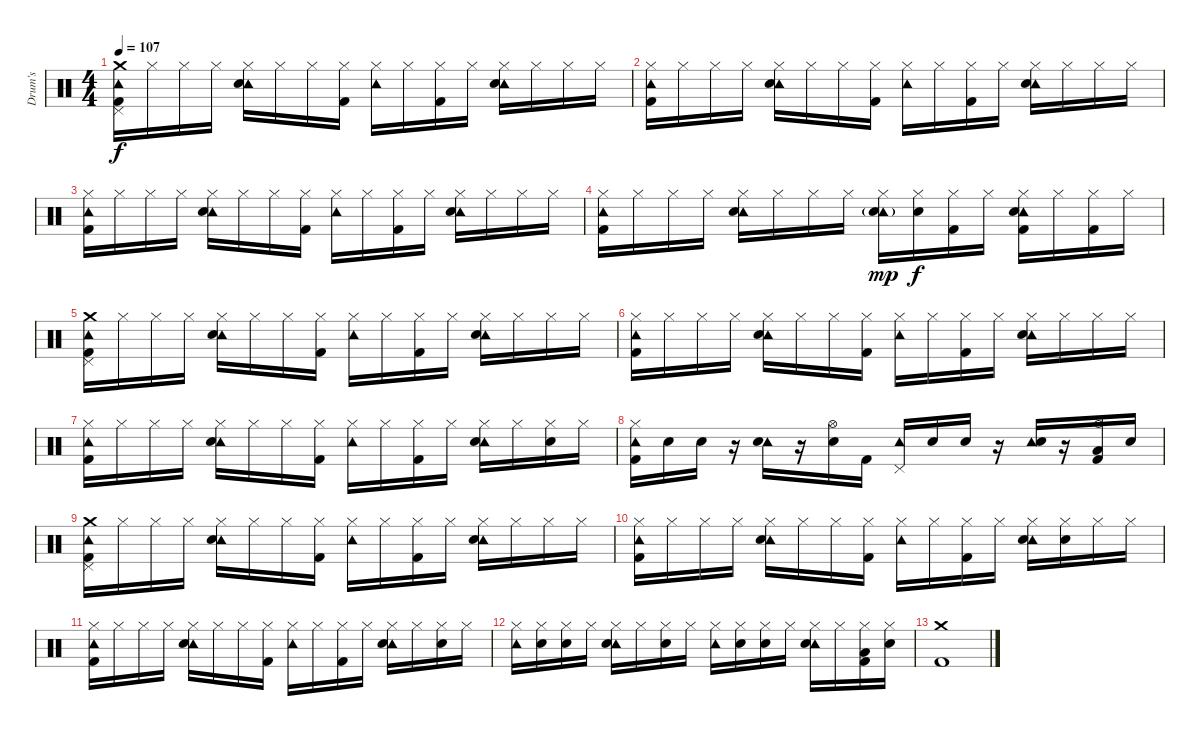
\track ("Drum's" "Drum's") {instrument percussion}
\staff {score}
\articulation defaults
\ts (4 4)
\tempo 107
\clef neutral
\ks c
("Crash medium (hit)" "Pedal Hi-Hat (hit)" "Tambourine (hit)" "Kick (hit) 2").16{dy f} "Hi-Hat (closed)".16 "Hi-Hat (closed)".16 "Hi-Hat (closed)".16 ("Hi-Hat (closed)" "Tambourine (hit)" "Snare (hit) 2").16 "Hi-Hat (closed)".16 "Hi-Hat (closed)".16 ("Hi-Hat (closed)" "Kick (hit) 2").16 ("Hi-Hat (closed)" "Tambourine (hit)").16 "Hi-Hat (closed)".16 ("Hi-Hat (closed)" "Kick (hit) 2").16 "Hi-Hat (closed)".16 ("Hi-Hat (closed)" "Tambourine (hit)" "Snare (hit) 2").16 "Hi-Hat (closed)".16 "Hi-Hat (closed)".16 "Hi-Hat (closed)".16 |
("Hi-Hat (closed)" "Tambourine (hit)" "Kick (hit) 2").16 "Hi-Hat (closed)".16 "Hi-Hat (closed)".16 "Hi-Hat (closed)".16 ("Hi-Hat (closed)" "Tambourine (hit)" "Snare (hit) 2").16 "Hi-Hat (closed)".16 "Hi-Hat (closed)".16 ("Hi-Hat (closed)" "Kick (hit) 2").16 ("Hi-Hat (closed)" "Tambourine (hit)").16 "Hi-Hat (closed)".16 ("Hi-Hat (closed)" "Kick (hit) 2").16 "Hi-Hat (closed)".16 ("Hi-Hat (closed)" "Tambourine (hit)" "Snare (hit) 2").16 "Hi-Hat (closed)".16 "Hi-Hat (closed)".16 "Hi-Hat (closed)".16 |
("Hi-Hat (closed)" "Tambourine (hit)" "Kick (hit) 2").16 "Hi-Hat (closed)".16 "Hi-Hat (closed)".16 "Hi-Hat (closed)".16 ("Hi-Hat (closed)" "Tambourine (hit)" "Snare (hit) 2").16 "Hi-Hat (closed)".16 "Hi-Hat (closed)".16 ("Hi-Hat (closed)" "Kick (hit) 2").16 ("Hi-Hat (closed)" "Tambourine (hit)").16 "Hi-Hat (closed)".16 ("Hi-Hat (closed)" "Kick (hit) 2").16 "Hi-Hat (closed)".16 ("Hi-Hat (closed)" "Tambourine (hit)" "Snare (hit) 2").16 "Hi-Hat (closed)".16 "Hi-Hat (closed)".16 "Hi-Hat (closed)".16 |
("Hi-Hat (closed)" "Tambourine (hit)" "Kick (hit) 2").16 "Hi-Hat (closed)".16 "Hi-Hat (closed)".16 "Hi-Hat (closed)".16 ("Hi-Hat (closed)" "Tambourine (hit)" "Snare (hit) 2").16 "Hi-Hat (closed)".16 "Hi-Hat (closed)".16 "Hi-Hat (closed)".16 ("Hi-Hat (closed)" "Tambourine (hit)" "Snare (hit) 2"{g}).16{dy mp} ("Hi-Hat (closed)" "Snare (hit) 2").16{dy f} ("Hi-Hat (closed)" "Kick (hit) 2").16 "Hi-Hat (closed)".16 ("Hi-Hat (closed)" "Tambourine (hit)" "Snare (hit) 2" "Kick (hit) 2").16 "Hi-Hat (closed)".16 ("Hi-Hat (closed)" "Kick (hit) 2").16 "Hi-Hat (closed)".16 |
("Crash medium (hit)" "Pedal Hi-Hat (hit)" "Tambourine (hit)" "Kick (hit) 2").16{volume 8} "Hi-Hat (closed)".16 "Hi-Hat (closed)".16 "Hi-Hat (closed)".16 ("Hi-Hat (closed)" "Tambourine (hit)" "Snare (hit) 2").16 "Hi-Hat (closed)".16 "Hi-Hat (closed)".16 ("Hi-Hat (closed)" "Kick (hit) 2").16 ("Hi-Hat (closed)" "Tambourine (hit)").16 "Hi-Hat (closed)".16 ("Hi-Hat (closed)" "Kick (hit) 2").16 "Hi-Hat (closed)".16 ("Hi-Hat (closed)" "Tambourine (hit)" "Snare (hit) 2").16 "Hi-Hat (closed)".16 "Hi-Hat (closed)".16 "Hi-Hat (closed)".16 |
("Hi-Hat (closed)" "Tambourine (hit)" "Kick (hit) 2").16 "Hi-Hat (closed)".16 "Hi-Hat (closed)".16 "Hi-Hat (closed)".16 ("Hi-Hat (closed)" "Tambourine (hit)" "Snare (hit) 2").16 "Hi-Hat (closed)".16 "Hi-Hat (closed)".16 ("Hi-Hat (closed)" "Kick (hit) 2").16 ("Hi-Hat (closed)" "Tambourine (hit)").16 "Hi-Hat (closed)".16 ("Hi-Hat (closed)" "Kick (hit) 2").16 "Hi-Hat (closed)".16 ("Hi-Hat (closed)" "Tambourine (hit)" "Snare (hit) 2").16 "Hi-Hat (closed)".16 "Hi-Hat (closed)".16 "Hi-Hat (closed)".16 |
("Hi-Hat (closed)" "Tambourine (hit)" "Kick (hit) 2").16 "Hi-Hat (closed)".16 "Hi-Hat (closed)".16 "Hi-Hat (closed)".16 ("Hi-Hat (closed)" "Tambourine (hit)" "Snare (hit) 2").16 "Hi-Hat (closed)".16 "Hi-Hat (closed)".16 ("Hi-Hat (closed)" "Kick (hit) 2").16 ("Hi-Hat (closed)" "Tambourine (hit)").16 "Hi-Hat (closed)".16 ("Hi-Hat (closed)" "Kick (hit) 2").16 "Hi-Hat (closed)".16 ("Hi-Hat (closed)" "Tambourine (hit)" "Snare (hit) 2").16 "Hi-Hat (closed)".16 ("Hi-Hat (closed)" "Snare (hit) 2").16 "Hi-Hat (closed)".16 |
("Hi-Hat (closed)" "Tambourine (hit)" "Kick (hit) 2").16 "Snare (hit) 2".16 "Snare (hit) 2".16 r.16 ("Tambourine (hit)" "Snare (hit) 2").16 r.16 ("Hi-Hat (open)" "Snare (hit) 2").16 "Kick (hit) 2".16 ("Pedal Hi-Hat (hit)" "Tambourine (hit)").16 "Snare (hit) 2".16 "Snare (hit) 2".16 r.16 ("Tambourine (hit)" "Snare (hit) 2").16 r.16 ("Hi-Hat (open)" "Low Floor Tom (hit)" "Kick (hit) 2").16 "Snare (hit) 2".16 |
("Crash medium (hit)" "Pedal Hi-Hat (hit)" "Tambourine (hit)" "Kick (hit) 2").16{volume 2} "Hi-Hat (closed)".16 "Hi-Hat (closed)".16 "Hi-Hat (closed)".16 ("Hi-Hat (closed)" "Tambourine (hit)" "Snare (hit) 2").16 "Hi-Hat (closed)".16 "Hi-Hat (closed)".16 ("Hi-Hat (closed)" "Kick (hit) 2").16 ("Hi-Hat (closed)" "Tambourine (hit)").16 "Hi-Hat (closed)".16 ("Hi-Hat (closed)" "Kick (hit) 2").16 "Hi-Hat (closed)".16 ("Hi-Hat (closed)" "Tambourine (hit)" "Snare (hit) 2").16 "Hi-Hat (closed)".16 "Hi-Hat (closed)".16 "Hi-Hat (closed)".16 |
("Hi-Hat (closed)" "Tambourine (hit)" "Kick (hit) 2").16 "Hi-Hat (closed)".16 "Hi-Hat (closed)".16 "Hi-Hat (closed)".16 ("Hi-Hat (closed)" "Tambourine (hit)" "Snare (hit) 2").16 "Hi-Hat (closed)".16 "Hi-Hat (closed)".16 ("Hi-Hat (closed)" "Kick (hit) 2").16 ("Hi-Hat (closed)" "Tambourine (hit)").16 "Hi-Hat (closed)".16 ("Hi-Hat (closed)" "Kick (hit) 2").16 "Hi-Hat (closed)".16 ("Hi-Hat (closed)" "Tambourine (hit)" "Snare (hit) 2").16 ("Hi-Hat (closed)" "Snare (hit) 2").16 "Hi-Hat (closed)".16 "Hi-Hat (closed)".16 |
("Hi-Hat (closed)" "Tambourine (hit)" "Kick (hit) 2").16 "Hi-Hat (closed)".16 "Hi-Hat (closed)".16 "Hi-Hat (closed)".16 ("Hi-Hat (closed)" "Tambourine (hit)" "Snare (hit) 2").16 "Hi-Hat (closed)".16 "Hi-Hat (closed)".16 ("Hi-Hat (closed)" "Kick (hit) 2").16 ("Hi-Hat (closed)" "Tambourine (hit)").16 "Hi-Hat (closed)".16 ("Hi-Hat (closed)" "Kick (hit) 2").16 "Hi-Hat (closed)".16 ("Hi-Hat (closed)" "Tambourine (hit)" "Snare (hit) 2").16 "Hi-Hat (closed)".16 ("Hi-Hat (closed)" "Snare (hit) 2").16 "Hi-Hat (closed)".16 |
("Hi-Hat (closed)" "Tambourine (hit)").16 ("Hi-Hat (closed)" "Snare (hit) 2").16 ("Hi-Hat (closed)" "Snare (hit) 2").16 "Hi-Hat (closed)".16 ("Hi-Hat (closed)" "Tambourine (hit)" "Snare (hit) 2").16 "Hi-Hat (closed)".16 ("Hi-Hat (closed)" "Snare (hit) 2").16 "Hi-Hat (closed)".16 ("Hi-Hat (closed)" "Tambourine (hit)").16 ("Hi-Hat (closed)" "Snare (hit) 2").16 ("Hi-Hat (closed)" "Snare (hit) 2").16 "Hi-Hat (closed)".16 ("Hi-Hat (closed)" "Tambourine (hit)" "Snare (hit) 2").16 "Hi-Hat (closed)".16 ("Hi-Hat (closed)" "Low Floor Tom (hit)" "Kick (hit) 2").16 ("Hi-Hat (closed)" "Snare (hit) 2").16 |
("Crash medium (hit)" "Kick (hit) 2").1
